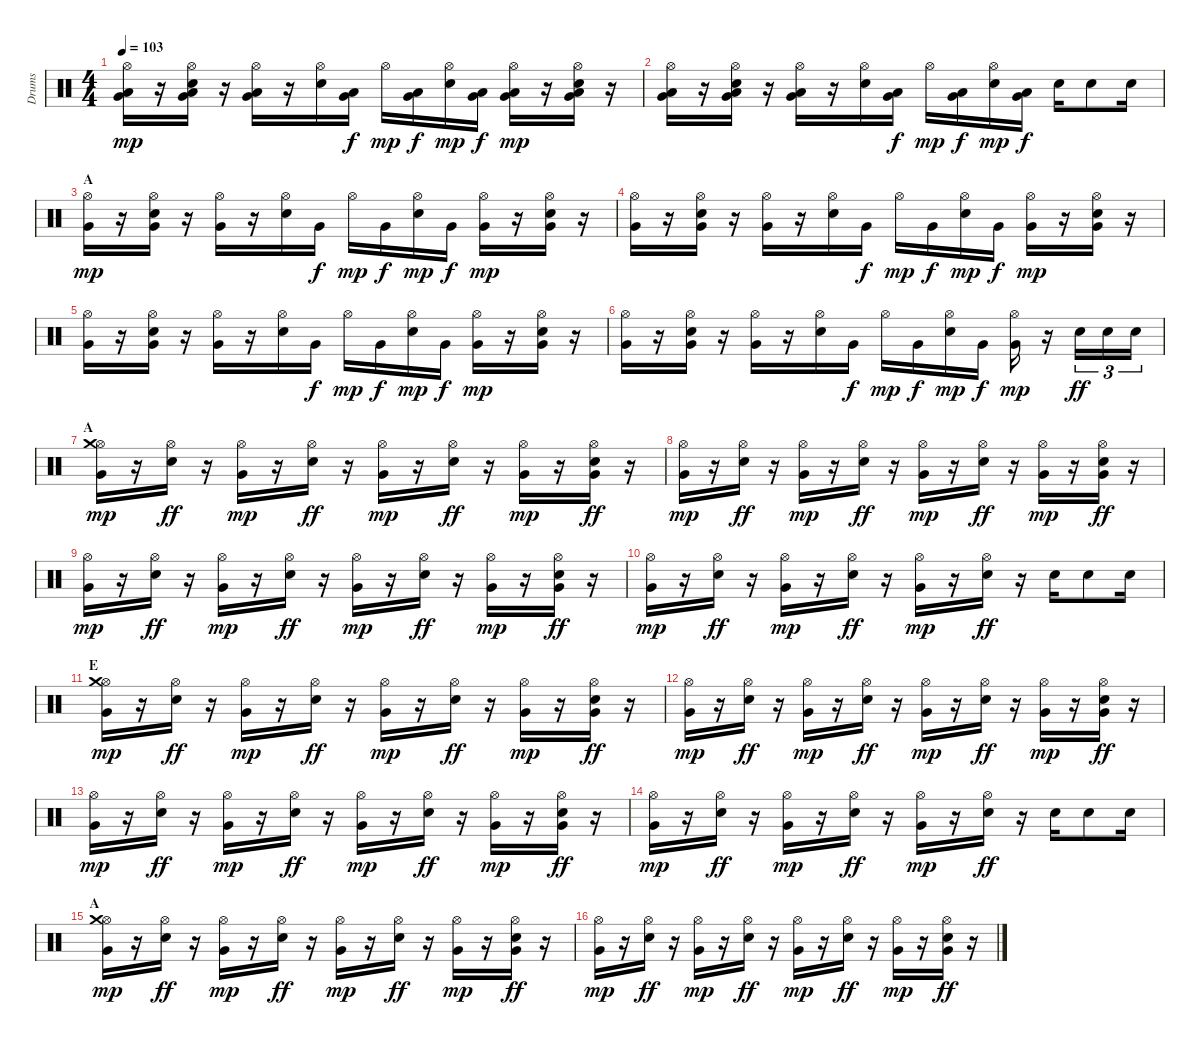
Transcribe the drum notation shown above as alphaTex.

\track ("Drums" "Drums") {instrument percussion}
\staff {score}
\articulation defaults
\ts (4 4)
\tempo 103
\clef neutral
\ks c
("Hi-Hat (open)" "Low Floor Tom (hit)" "Very Low Tom (hit)").16{dy mp} r.16 ("Hi-Hat (open)" "Electric Snare (hit)" "Low Floor Tom (hit)" "Very Low Tom (hit)").16 r.16 ("Hi-Hat (open)" "Low Floor Tom (hit)" "Very Low Tom (hit)").16 r.16 ("Hi-Hat (open)" "Electric Snare (hit)").16 ("Low Floor Tom (hit)" "Very Low Tom (hit)").16{dy f} "Hi-Hat (open)".16{dy mp} ("Low Floor Tom (hit)" "Very Low Tom (hit)").16{dy f} ("Hi-Hat (open)" "Electric Snare (hit)").16{dy mp} ("Low Floor Tom (hit)" "Very Low Tom (hit)").16{dy f} ("Hi-Hat (open)" "Low Floor Tom (hit)" "Very Low Tom (hit)").16{dy mp} r.16 ("Hi-Hat (open)" "Electric Snare (hit)" "Low Floor Tom (hit)" "Very Low Tom (hit)").16 r.16 |
("Hi-Hat (open)" "Low Floor Tom (hit)" "Very Low Tom (hit)").16 r.16 ("Hi-Hat (open)" "Electric Snare (hit)" "Low Floor Tom (hit)" "Very Low Tom (hit)").16 r.16 ("Hi-Hat (open)" "Low Floor Tom (hit)" "Very Low Tom (hit)").16 r.16 ("Hi-Hat (open)" "Electric Snare (hit)").16 ("Low Floor Tom (hit)" "Very Low Tom (hit)").16{dy f} "Hi-Hat (open)".16{dy mp} ("Low Floor Tom (hit)" "Very Low Tom (hit)").16{dy f} ("Hi-Hat (open)" "Electric Snare (hit)").16{dy mp} ("Low Floor Tom (hit)" "Very Low Tom (hit)").16{dy f} "Electric Snare (hit)".16 "Electric Snare (hit)".8 "Electric Snare (hit)".16 |
\section ("" "A")
("Hi-Hat (open)" "Very Low Tom (hit)").16{dy mp} r.16 ("Hi-Hat (open)" "Electric Snare (hit)" "Very Low Tom (hit)").16 r.16 ("Hi-Hat (open)" "Very Low Tom (hit)").16 r.16 ("Hi-Hat (open)" "Electric Snare (hit)").16 "Very Low Tom (hit)".16{dy f} "Hi-Hat (open)".16{dy mp} "Very Low Tom (hit)".16{dy f} ("Hi-Hat (open)" "Electric Snare (hit)").16{dy mp} "Very Low Tom (hit)".16{dy f} ("Hi-Hat (open)" "Very Low Tom (hit)").16{dy mp} r.16 ("Hi-Hat (open)" "Electric Snare (hit)" "Very Low Tom (hit)").16 r.16 |
("Hi-Hat (open)" "Very Low Tom (hit)").16 r.16 ("Hi-Hat (open)" "Electric Snare (hit)" "Very Low Tom (hit)").16 r.16 ("Hi-Hat (open)" "Very Low Tom (hit)").16 r.16 ("Hi-Hat (open)" "Electric Snare (hit)").16 "Very Low Tom (hit)".16{dy f} "Hi-Hat (open)".16{dy mp} "Very Low Tom (hit)".16{dy f} ("Hi-Hat (open)" "Electric Snare (hit)").16{dy mp} "Very Low Tom (hit)".16{dy f} ("Hi-Hat (open)" "Very Low Tom (hit)").16{dy mp} r.16 ("Hi-Hat (open)" "Electric Snare (hit)" "Very Low Tom (hit)").16 r.16 |
("Hi-Hat (open)" "Very Low Tom (hit)").16 r.16 ("Hi-Hat (open)" "Electric Snare (hit)" "Very Low Tom (hit)").16 r.16 ("Hi-Hat (open)" "Very Low Tom (hit)").16 r.16 ("Hi-Hat (open)" "Electric Snare (hit)").16 "Very Low Tom (hit)".16{dy f} "Hi-Hat (open)".16{dy mp} "Very Low Tom (hit)".16{dy f} ("Hi-Hat (open)" "Electric Snare (hit)").16{dy mp} "Very Low Tom (hit)".16{dy f} ("Hi-Hat (open)" "Very Low Tom (hit)").16{dy mp} r.16 ("Hi-Hat (open)" "Electric Snare (hit)" "Very Low Tom (hit)").16 r.16 |
("Hi-Hat (open)" "Very Low Tom (hit)").16 r.16 ("Hi-Hat (open)" "Electric Snare (hit)" "Very Low Tom (hit)").16 r.16 ("Hi-Hat (open)" "Very Low Tom (hit)").16 r.16 ("Hi-Hat (open)" "Electric Snare (hit)").16 "Very Low Tom (hit)".16{dy f} "Hi-Hat (open)".16{dy mp} "Very Low Tom (hit)".16{dy f} ("Hi-Hat (open)" "Electric Snare (hit)").16{dy mp} "Very Low Tom (hit)".16{dy f} ("Hi-Hat (open)" "Very Low Tom (hit)").16{dy mp} r.16 "Electric Snare (hit)".16{tu (3 2) dy ff} "Electric Snare (hit)".16{tu (3 2)} "Electric Snare (hit)".16{tu (3 2)} |
\section ("" "A")
("Hi-Hat (open)" "Crash medium (hit)" "Very Low Tom (hit)").16{dy mp} r.16 ("Hi-Hat (open)" "Electric Snare (hit)").16{dy ff} r.16 ("Hi-Hat (open)" "Very Low Tom (hit)").16{dy mp} r.16 ("Hi-Hat (open)" "Electric Snare (hit)").16{dy ff} r.16 ("Hi-Hat (open)" "Very Low Tom (hit)").16{dy mp} r.16 ("Hi-Hat (open)" "Electric Snare (hit)").16{dy ff} r.16 ("Hi-Hat (open)" "Very Low Tom (hit)").16{dy mp} r.16 ("Hi-Hat (open)" "Electric Snare (hit)" "Very Low Tom (hit)").16{dy ff} r.16 |
("Hi-Hat (open)" "Very Low Tom (hit)").16{dy mp} r.16 ("Hi-Hat (open)" "Electric Snare (hit)").16{dy ff} r.16 ("Hi-Hat (open)" "Very Low Tom (hit)").16{dy mp} r.16 ("Hi-Hat (open)" "Electric Snare (hit)").16{dy ff} r.16 ("Hi-Hat (open)" "Very Low Tom (hit)").16{dy mp} r.16 ("Hi-Hat (open)" "Electric Snare (hit)").16{dy ff} r.16 ("Hi-Hat (open)" "Very Low Tom (hit)").16{dy mp} r.16 ("Hi-Hat (open)" "Electric Snare (hit)" "Very Low Tom (hit)").16{dy ff} r.16 |
("Hi-Hat (open)" "Very Low Tom (hit)").16{dy mp} r.16 ("Hi-Hat (open)" "Electric Snare (hit)").16{dy ff} r.16 ("Hi-Hat (open)" "Very Low Tom (hit)").16{dy mp} r.16 ("Hi-Hat (open)" "Electric Snare (hit)").16{dy ff} r.16 ("Hi-Hat (open)" "Very Low Tom (hit)").16{dy mp} r.16 ("Hi-Hat (open)" "Electric Snare (hit)").16{dy ff} r.16 ("Hi-Hat (open)" "Very Low Tom (hit)").16{dy mp} r.16 ("Hi-Hat (open)" "Electric Snare (hit)" "Very Low Tom (hit)").16{dy ff} r.16 |
("Hi-Hat (open)" "Very Low Tom (hit)").16{dy mp} r.16 ("Hi-Hat (open)" "Electric Snare (hit)").16{dy ff} r.16 ("Hi-Hat (open)" "Very Low Tom (hit)").16{dy mp} r.16 ("Hi-Hat (open)" "Electric Snare (hit)").16{dy ff} r.16 ("Hi-Hat (open)" "Very Low Tom (hit)").16{dy mp} r.16 ("Hi-Hat (open)" "Electric Snare (hit)").16{dy ff} r.16 "Electric Snare (hit)".16 "Electric Snare (hit)".8 "Electric Snare (hit)".16 |
\section ("" "E")
("Hi-Hat (open)" "Crash medium (hit)" "Very Low Tom (hit)").16{dy mp} r.16 ("Hi-Hat (open)" "Electric Snare (hit)").16{dy ff} r.16 ("Hi-Hat (open)" "Very Low Tom (hit)").16{dy mp} r.16 ("Hi-Hat (open)" "Electric Snare (hit)").16{dy ff} r.16 ("Hi-Hat (open)" "Very Low Tom (hit)").16{dy mp} r.16 ("Hi-Hat (open)" "Electric Snare (hit)").16{dy ff} r.16 ("Hi-Hat (open)" "Very Low Tom (hit)").16{dy mp} r.16 ("Hi-Hat (open)" "Electric Snare (hit)" "Very Low Tom (hit)").16{dy ff} r.16 |
("Hi-Hat (open)" "Very Low Tom (hit)").16{dy mp} r.16 ("Hi-Hat (open)" "Electric Snare (hit)").16{dy ff} r.16 ("Hi-Hat (open)" "Very Low Tom (hit)").16{dy mp} r.16 ("Hi-Hat (open)" "Electric Snare (hit)").16{dy ff} r.16 ("Hi-Hat (open)" "Very Low Tom (hit)").16{dy mp} r.16 ("Hi-Hat (open)" "Electric Snare (hit)").16{dy ff} r.16 ("Hi-Hat (open)" "Very Low Tom (hit)").16{dy mp} r.16 ("Hi-Hat (open)" "Electric Snare (hit)" "Very Low Tom (hit)").16{dy ff} r.16 |
("Hi-Hat (open)" "Very Low Tom (hit)").16{dy mp} r.16 ("Hi-Hat (open)" "Electric Snare (hit)").16{dy ff} r.16 ("Hi-Hat (open)" "Very Low Tom (hit)").16{dy mp} r.16 ("Hi-Hat (open)" "Electric Snare (hit)").16{dy ff} r.16 ("Hi-Hat (open)" "Very Low Tom (hit)").16{dy mp} r.16 ("Hi-Hat (open)" "Electric Snare (hit)").16{dy ff} r.16 ("Hi-Hat (open)" "Very Low Tom (hit)").16{dy mp} r.16 ("Hi-Hat (open)" "Electric Snare (hit)" "Very Low Tom (hit)").16{dy ff} r.16 |
("Hi-Hat (open)" "Very Low Tom (hit)").16{dy mp} r.16 ("Hi-Hat (open)" "Electric Snare (hit)").16{dy ff} r.16 ("Hi-Hat (open)" "Very Low Tom (hit)").16{dy mp} r.16 ("Hi-Hat (open)" "Electric Snare (hit)").16{dy ff} r.16 ("Hi-Hat (open)" "Very Low Tom (hit)").16{dy mp} r.16 ("Hi-Hat (open)" "Electric Snare (hit)").16{dy ff} r.16 "Electric Snare (hit)".16 "Electric Snare (hit)".8 "Electric Snare (hit)".16 |
\section ("" "A")
("Hi-Hat (open)" "Crash medium (hit)" "Very Low Tom (hit)").16{dy mp} r.16 ("Hi-Hat (open)" "Electric Snare (hit)").16{dy ff} r.16 ("Hi-Hat (open)" "Very Low Tom (hit)").16{dy mp} r.16 ("Hi-Hat (open)" "Electric Snare (hit)").16{dy ff} r.16 ("Hi-Hat (open)" "Very Low Tom (hit)").16{dy mp} r.16 ("Hi-Hat (open)" "Electric Snare (hit)").16{dy ff} r.16 ("Hi-Hat (open)" "Very Low Tom (hit)").16{dy mp} r.16 ("Hi-Hat (open)" "Electric Snare (hit)" "Very Low Tom (hit)").16{dy ff} r.16 |
("Hi-Hat (open)" "Very Low Tom (hit)").16{dy mp} r.16 ("Hi-Hat (open)" "Electric Snare (hit)").16{dy ff} r.16 ("Hi-Hat (open)" "Very Low Tom (hit)").16{dy mp} r.16 ("Hi-Hat (open)" "Electric Snare (hit)").16{dy ff} r.16 ("Hi-Hat (open)" "Very Low Tom (hit)").16{dy mp} r.16 ("Hi-Hat (open)" "Electric Snare (hit)").16{dy ff} r.16 ("Hi-Hat (open)" "Very Low Tom (hit)").16{dy mp} r.16 ("Hi-Hat (open)" "Electric Snare (hit)" "Very Low Tom (hit)").16{dy ff} r.16
